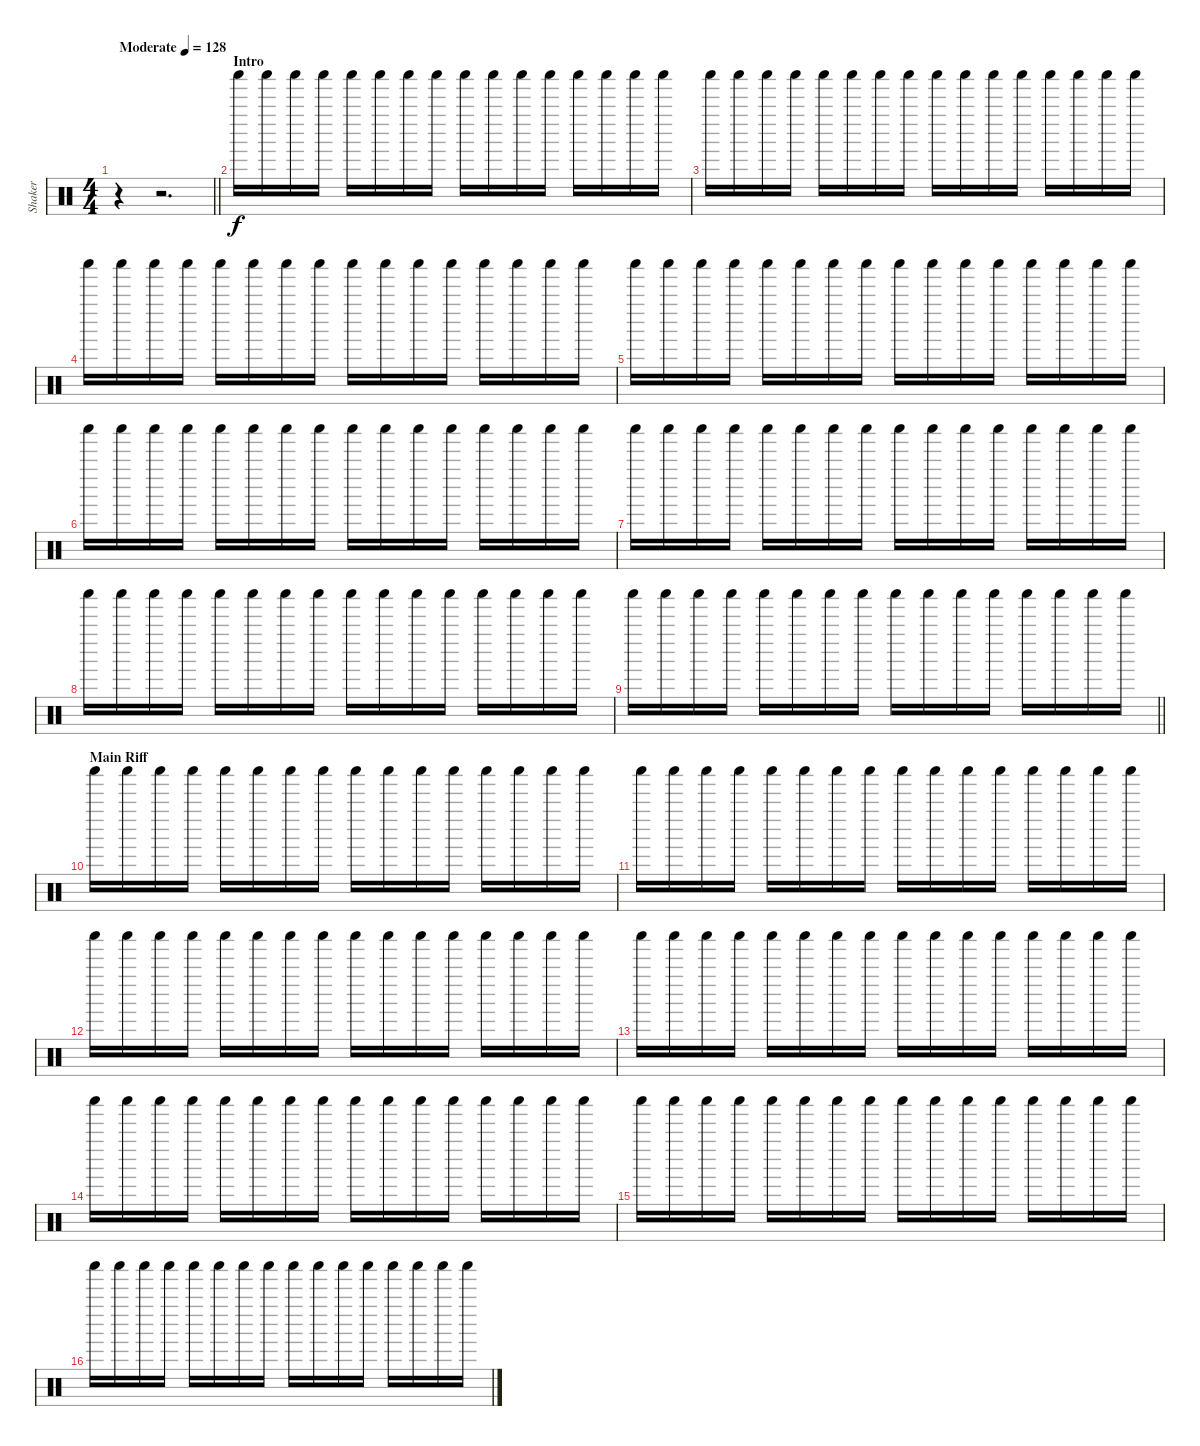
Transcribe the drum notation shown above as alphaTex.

\track ("Shaker" "Shaker") {instrument percussion}
\staff {score}
\articulation defaults
\ts (4 4)
\tempo (128 "Moderate")
\clef neutral
\barLineRight lightlight
\ks c
r.4{dy f} r.2{d} |
\section ("" "Intro")
"Shaker (hit)".16{volume 6} "Shaker (hit)".16 "Shaker (hit)".16 "Shaker (hit)".16 "Shaker (hit)".16 "Shaker (hit)".16 "Shaker (hit)".16 "Shaker (hit)".16 "Shaker (hit)".16 "Shaker (hit)".16 "Shaker (hit)".16 "Shaker (hit)".16 "Shaker (hit)".16 "Shaker (hit)".16 "Shaker (hit)".16 "Shaker (hit)".16 |
"Shaker (hit)".16 "Shaker (hit)".16 "Shaker (hit)".16 "Shaker (hit)".16 "Shaker (hit)".16 "Shaker (hit)".16 "Shaker (hit)".16 "Shaker (hit)".16 "Shaker (hit)".16 "Shaker (hit)".16 "Shaker (hit)".16 "Shaker (hit)".16 "Shaker (hit)".16 "Shaker (hit)".16 "Shaker (hit)".16 "Shaker (hit)".16 |
"Shaker (hit)".16 "Shaker (hit)".16 "Shaker (hit)".16 "Shaker (hit)".16 "Shaker (hit)".16 "Shaker (hit)".16 "Shaker (hit)".16 "Shaker (hit)".16 "Shaker (hit)".16 "Shaker (hit)".16 "Shaker (hit)".16 "Shaker (hit)".16 "Shaker (hit)".16 "Shaker (hit)".16 "Shaker (hit)".16 "Shaker (hit)".16 |
"Shaker (hit)".16 "Shaker (hit)".16 "Shaker (hit)".16 "Shaker (hit)".16 "Shaker (hit)".16 "Shaker (hit)".16 "Shaker (hit)".16 "Shaker (hit)".16 "Shaker (hit)".16 "Shaker (hit)".16 "Shaker (hit)".16 "Shaker (hit)".16 "Shaker (hit)".16 "Shaker (hit)".16 "Shaker (hit)".16 "Shaker (hit)".16 |
"Shaker (hit)".16 "Shaker (hit)".16 "Shaker (hit)".16 "Shaker (hit)".16 "Shaker (hit)".16 "Shaker (hit)".16 "Shaker (hit)".16 "Shaker (hit)".16 "Shaker (hit)".16 "Shaker (hit)".16 "Shaker (hit)".16 "Shaker (hit)".16 "Shaker (hit)".16 "Shaker (hit)".16 "Shaker (hit)".16 "Shaker (hit)".16 |
"Shaker (hit)".16 "Shaker (hit)".16 "Shaker (hit)".16 "Shaker (hit)".16 "Shaker (hit)".16 "Shaker (hit)".16 "Shaker (hit)".16 "Shaker (hit)".16 "Shaker (hit)".16 "Shaker (hit)".16 "Shaker (hit)".16 "Shaker (hit)".16 "Shaker (hit)".16 "Shaker (hit)".16 "Shaker (hit)".16 "Shaker (hit)".16 |
"Shaker (hit)".16 "Shaker (hit)".16 "Shaker (hit)".16 "Shaker (hit)".16 "Shaker (hit)".16 "Shaker (hit)".16 "Shaker (hit)".16 "Shaker (hit)".16 "Shaker (hit)".16 "Shaker (hit)".16 "Shaker (hit)".16 "Shaker (hit)".16 "Shaker (hit)".16 "Shaker (hit)".16 "Shaker (hit)".16 "Shaker (hit)".16 |
\barLineRight lightlight "Shaker (hit)".16 "Shaker (hit)".16 "Shaker (hit)".16 "Shaker (hit)".16 "Shaker (hit)".16 "Shaker (hit)".16 "Shaker (hit)".16 "Shaker (hit)".16 "Shaker (hit)".16 "Shaker (hit)".16 "Shaker (hit)".16 "Shaker (hit)".16 "Shaker (hit)".16 "Shaker (hit)".16 "Shaker (hit)".16 "Shaker (hit)".16
|
\section ("" "Main Riff")
"Shaker (hit)".16 "Shaker (hit)".16 "Shaker (hit)".16 "Shaker (hit)".16 "Shaker (hit)".16 "Shaker (hit)".16 "Shaker (hit)".16 "Shaker (hit)".16 "Shaker (hit)".16 "Shaker (hit)".16 "Shaker (hit)".16 "Shaker (hit)".16 "Shaker (hit)".16 "Shaker (hit)".16 "Shaker (hit)".16 "Shaker (hit)".16 |
"Shaker (hit)".16 "Shaker (hit)".16 "Shaker (hit)".16 "Shaker (hit)".16 "Shaker (hit)".16 "Shaker (hit)".16 "Shaker (hit)".16 "Shaker (hit)".16 "Shaker (hit)".16 "Shaker (hit)".16 "Shaker (hit)".16 "Shaker (hit)".16 "Shaker (hit)".16 "Shaker (hit)".16 "Shaker (hit)".16 "Shaker (hit)".16 |
"Shaker (hit)".16 "Shaker (hit)".16 "Shaker (hit)".16 "Shaker (hit)".16 "Shaker (hit)".16 "Shaker (hit)".16 "Shaker (hit)".16 "Shaker (hit)".16 "Shaker (hit)".16 "Shaker (hit)".16 "Shaker (hit)".16 "Shaker (hit)".16 "Shaker (hit)".16 "Shaker (hit)".16 "Shaker (hit)".16 "Shaker (hit)".16 |
"Shaker (hit)".16 "Shaker (hit)".16 "Shaker (hit)".16 "Shaker (hit)".16 "Shaker (hit)".16 "Shaker (hit)".16 "Shaker (hit)".16 "Shaker (hit)".16 "Shaker (hit)".16 "Shaker (hit)".16 "Shaker (hit)".16 "Shaker (hit)".16 "Shaker (hit)".16 "Shaker (hit)".16 "Shaker (hit)".16 "Shaker (hit)".16 |
"Shaker (hit)".16 "Shaker (hit)".16 "Shaker (hit)".16 "Shaker (hit)".16 "Shaker (hit)".16 "Shaker (hit)".16 "Shaker (hit)".16 "Shaker (hit)".16 "Shaker (hit)".16 "Shaker (hit)".16 "Shaker (hit)".16 "Shaker (hit)".16 "Shaker (hit)".16 "Shaker (hit)".16 "Shaker (hit)".16 "Shaker (hit)".16 |
"Shaker (hit)".16 "Shaker (hit)".16 "Shaker (hit)".16 "Shaker (hit)".16 "Shaker (hit)".16 "Shaker (hit)".16 "Shaker (hit)".16 "Shaker (hit)".16 "Shaker (hit)".16 "Shaker (hit)".16 "Shaker (hit)".16 "Shaker (hit)".16 "Shaker (hit)".16 "Shaker (hit)".16 "Shaker (hit)".16 "Shaker (hit)".16 |
"Shaker (hit)".16 "Shaker (hit)".16 "Shaker (hit)".16 "Shaker (hit)".16 "Shaker (hit)".16 "Shaker (hit)".16 "Shaker (hit)".16 "Shaker (hit)".16 "Shaker (hit)".16 "Shaker (hit)".16 "Shaker (hit)".16 "Shaker (hit)".16 "Shaker (hit)".16 "Shaker (hit)".16 "Shaker (hit)".16 "Shaker (hit)".16
